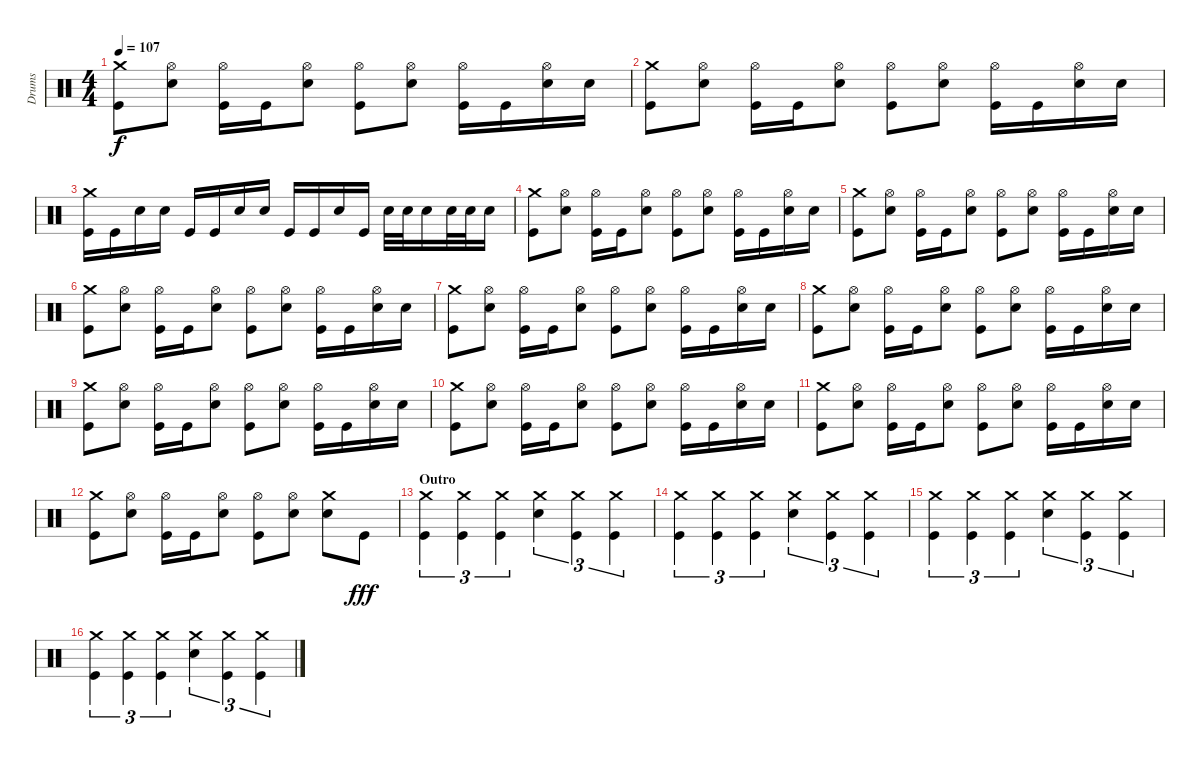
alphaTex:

\track ("Drums" "Drums") {instrument percussion}
\staff {score}
\articulation defaults
\ts (4 4)
\tempo 107
\clef neutral
\ks c
("Crash medium (hit)" "Kick (hit)").8{dy f} ("Hi-Hat (open)" "Electric Snare (hit)").8 ("Hi-Hat (open)" "Kick (hit)").16 "Kick (hit)".16 ("Hi-Hat (open)" "Electric Snare (hit)").8 ("Hi-Hat (open)" "Kick (hit)").8 ("Hi-Hat (open)" "Electric Snare (hit)").8 ("Hi-Hat (open)" "Kick (hit)").16 "Kick (hit)".16 ("Hi-Hat (open)" "Electric Snare (hit)").16 "Electric Snare (hit)".16 |
("Crash medium (hit)" "Kick (hit)").8 ("Hi-Hat (open)" "Electric Snare (hit)").8 ("Hi-Hat (open)" "Kick (hit)").16 "Kick (hit)".16 ("Hi-Hat (open)" "Electric Snare (hit)").8 ("Hi-Hat (open)" "Kick (hit)").8 ("Hi-Hat (open)" "Electric Snare (hit)").8 ("Hi-Hat (open)" "Kick (hit)").16 "Kick (hit)".16 ("Hi-Hat (open)" "Electric Snare (hit)").16 "Electric Snare (hit)".16 |
("Crash medium (hit)" "Kick (hit)").16 "Kick (hit)".16 "Electric Snare (hit)".16 "Electric Snare (hit)".16 "Kick (hit)".16 "Kick (hit)".16 "Electric Snare (hit)".16 "Electric Snare (hit)".16 "Kick (hit)".16 "Kick (hit)".16 "Electric Snare (hit)".16 "Kick (hit)".16 "Electric Snare (hit)".32 "Electric Snare (hit)".32 "Electric Snare (hit)".16 "Electric Snare (hit)".32 "Electric Snare (hit)".32 "Electric Snare (hit)".16 |
("Crash medium (hit)" "Kick (hit)").8 ("Hi-Hat (open)" "Electric Snare (hit)").8 ("Hi-Hat (open)" "Kick (hit)").16 "Kick (hit)".16 ("Hi-Hat (open)" "Electric Snare (hit)").8 ("Hi-Hat (open)" "Kick (hit)").8 ("Hi-Hat (open)" "Electric Snare (hit)").8 ("Hi-Hat (open)" "Kick (hit)").16 "Kick (hit)".16 ("Hi-Hat (open)" "Electric Snare (hit)").16 "Electric Snare (hit)".16 |
("Crash medium (hit)" "Kick (hit)").8 ("Hi-Hat (open)" "Electric Snare (hit)").8 ("Hi-Hat (open)" "Kick (hit)").16 "Kick (hit)".16 ("Hi-Hat (open)" "Electric Snare (hit)").8 ("Hi-Hat (open)" "Kick (hit)").8 ("Hi-Hat (open)" "Electric Snare (hit)").8 ("Hi-Hat (open)" "Kick (hit)").16 "Kick (hit)".16 ("Hi-Hat (open)" "Electric Snare (hit)").16 "Electric Snare (hit)".16 |
("Crash medium (hit)" "Kick (hit)").8 ("Hi-Hat (open)" "Electric Snare (hit)").8 ("Hi-Hat (open)" "Kick (hit)").16 "Kick (hit)".16 ("Hi-Hat (open)" "Electric Snare (hit)").8 ("Hi-Hat (open)" "Kick (hit)").8 ("Hi-Hat (open)" "Electric Snare (hit)").8 ("Hi-Hat (open)" "Kick (hit)").16 "Kick (hit)".16 ("Hi-Hat (open)" "Electric Snare (hit)").16 "Electric Snare (hit)".16 |
("Crash medium (hit)" "Kick (hit)").8 ("Hi-Hat (open)" "Electric Snare (hit)").8 ("Hi-Hat (open)" "Kick (hit)").16 "Kick (hit)".16 ("Hi-Hat (open)" "Electric Snare (hit)").8 ("Hi-Hat (open)" "Kick (hit)").8 ("Hi-Hat (open)" "Electric Snare (hit)").8 ("Hi-Hat (open)" "Kick (hit)").16 "Kick (hit)".16 ("Hi-Hat (open)" "Electric Snare (hit)").16 "Electric Snare (hit)".16 |
("Crash medium (hit)" "Kick (hit)").8 ("Hi-Hat (open)" "Electric Snare (hit)").8 ("Hi-Hat (open)" "Kick (hit)").16 "Kick (hit)".16 ("Hi-Hat (open)" "Electric Snare (hit)").8 ("Hi-Hat (open)" "Kick (hit)").8 ("Hi-Hat (open)" "Electric Snare (hit)").8 ("Hi-Hat (open)" "Kick (hit)").16 "Kick (hit)".16 ("Hi-Hat (open)" "Electric Snare (hit)").16 "Electric Snare (hit)".16 |
("Crash medium (hit)" "Kick (hit)").8 ("Hi-Hat (open)" "Electric Snare (hit)").8 ("Hi-Hat (open)" "Kick (hit)").16 "Kick (hit)".16 ("Hi-Hat (open)" "Electric Snare (hit)").8 ("Hi-Hat (open)" "Kick (hit)").8 ("Hi-Hat (open)" "Electric Snare (hit)").8 ("Hi-Hat (open)" "Kick (hit)").16 "Kick (hit)".16 ("Hi-Hat (open)" "Electric Snare (hit)").16 "Electric Snare (hit)".16 |
("Crash medium (hit)" "Kick (hit)").8 ("Hi-Hat (open)" "Electric Snare (hit)").8 ("Hi-Hat (open)" "Kick (hit)").16 "Kick (hit)".16 ("Hi-Hat (open)" "Electric Snare (hit)").8 ("Hi-Hat (open)" "Kick (hit)").8 ("Hi-Hat (open)" "Electric Snare (hit)").8 ("Hi-Hat (open)" "Kick (hit)").16 "Kick (hit)".16 ("Hi-Hat (open)" "Electric Snare (hit)").16 "Electric Snare (hit)".16 |
("Crash medium (hit)" "Kick (hit)").8 ("Hi-Hat (open)" "Electric Snare (hit)").8 ("Hi-Hat (open)" "Kick (hit)").16 "Kick (hit)".16 ("Hi-Hat (open)" "Electric Snare (hit)").8 ("Hi-Hat (open)" "Kick (hit)").8 ("Hi-Hat (open)" "Electric Snare (hit)").8 ("Hi-Hat (open)" "Kick (hit)").16 "Kick (hit)".16 ("Hi-Hat (open)" "Electric Snare (hit)").16 "Electric Snare (hit)".16 |
("Crash medium (hit)" "Kick (hit)").8 ("Hi-Hat (open)" "Electric Snare (hit)").8 ("Hi-Hat (open)" "Kick (hit)").16 "Kick (hit)".16 ("Hi-Hat (open)" "Electric Snare (hit)").8 ("Hi-Hat (open)" "Kick (hit)").8 ("Hi-Hat (open)" "Electric Snare (hit)").8 ("Crash medium (hit)" "Electric Snare (hit)").8 "Kick (hit)".8{dy fff} |
\section ("" "Outro")
("Crash medium (hit)" "Kick (hit)").4{tu (3 2)} ("Crash medium (hit)" "Kick (hit)").4{tu (3 2)} ("Crash medium (hit)" "Kick (hit)").4{tu (3 2)} ("Crash medium (hit)" "Electric Snare (hit)").4{tu (3 2)} ("Crash medium (hit)" "Kick (hit)").4{tu (3 2)} ("Crash medium (hit)" "Kick (hit)").4{tu (3 2)} |
("Crash medium (hit)" "Kick (hit)").4{tu (3 2)} ("Crash medium (hit)" "Kick (hit)").4{tu (3 2)} ("Crash medium (hit)" "Kick (hit)").4{tu (3 2)} ("Crash medium (hit)" "Electric Snare (hit)").4{tu (3 2)} ("Crash medium (hit)" "Kick (hit)").4{tu (3 2)} ("Crash medium (hit)" "Kick (hit)").4{tu (3 2)} |
("Crash medium (hit)" "Kick (hit)").4{tu (3 2)} ("Crash medium (hit)" "Kick (hit)").4{tu (3 2)} ("Crash medium (hit)" "Kick (hit)").4{tu (3 2)} ("Crash medium (hit)" "Electric Snare (hit)").4{tu (3 2)} ("Crash medium (hit)" "Kick (hit)").4{tu (3 2)} ("Crash medium (hit)" "Kick (hit)").4{tu (3 2)} |
("Crash medium (hit)" "Kick (hit)").4{tu (3 2)} ("Crash medium (hit)" "Kick (hit)").4{tu (3 2)} ("Crash medium (hit)" "Kick (hit)").4{tu (3 2)} ("Crash medium (hit)" "Electric Snare (hit)").4{tu (3 2)} ("Crash medium (hit)" "Kick (hit)").4{tu (3 2)} ("Crash medium (hit)" "Kick (hit)").4{tu (3 2)}
